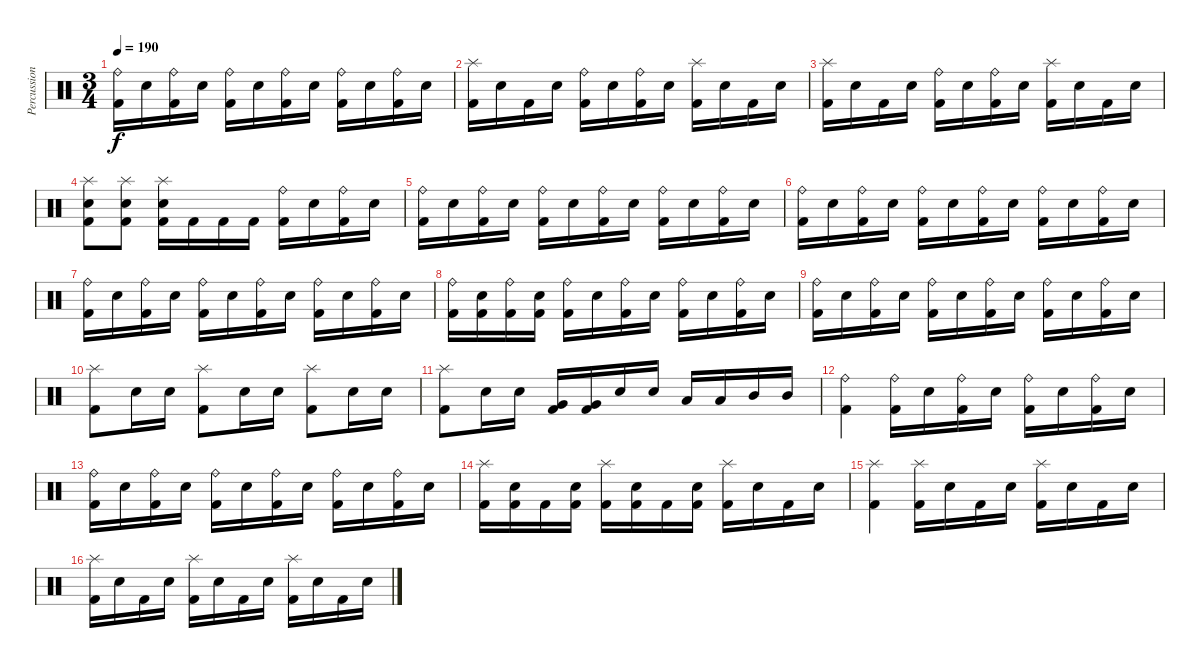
\track ("Percussion" "Percussion") {instrument percussion}
\staff {score}
\articulation defaults
\ts (3 4)
\tempo 190
\clef neutral
\ks c
("Ride (bell)" "Kick (hit) 2").16{dy f} "Electric Snare (hit)".16 ("Ride (bell)" "Kick (hit) 2").16 "Electric Snare (hit)".16 ("Ride (bell)" "Kick (hit) 2").16 "Electric Snare (hit)".16 ("Ride (bell)" "Kick (hit) 2").16 "Electric Snare (hit)".16 ("Ride (bell)" "Kick (hit) 2").16 "Electric Snare (hit)".16 ("Ride (bell)" "Kick (hit) 2").16 "Electric Snare (hit)".16 |
("Splash (hit)" "Kick (hit) 2").16 "Electric Snare (hit)".16 "Kick (hit) 2".16 "Electric Snare (hit)".16 ("Ride (bell)" "Kick (hit) 2").16 "Electric Snare (hit)".16 ("Ride (bell)" "Kick (hit) 2").16 "Electric Snare (hit)".16 ("Splash (hit)" "Kick (hit) 2").16 "Electric Snare (hit)".16 "Kick (hit) 2".16 "Electric Snare (hit)".16 |
("Splash (hit)" "Kick (hit) 2").16 "Electric Snare (hit)".16 "Kick (hit) 2".16 "Electric Snare (hit)".16 ("Ride (bell)" "Kick (hit) 2").16 "Electric Snare (hit)".16 ("Ride (bell)" "Kick (hit) 2").16 "Electric Snare (hit)".16 ("Splash (hit)" "Kick (hit) 2").16 "Electric Snare (hit)".16 "Kick (hit) 2".16 "Electric Snare (hit)".16 |
("Splash (hit)" "Electric Snare (hit)" "Kick (hit) 2").8 ("Splash (hit)" "Electric Snare (hit)" "Kick (hit) 2").8 ("Splash (hit)" "Electric Snare (hit)" "Kick (hit) 2").16 "Kick (hit) 2".16 "Kick (hit) 2".16 "Kick (hit) 2".16 ("Ride (bell)" "Kick (hit) 2").16 "Electric Snare (hit)".16 ("Ride (bell)" "Kick (hit) 2").16 "Electric Snare (hit)".16 |
("Ride (bell)" "Kick (hit) 2").16 "Electric Snare (hit)".16 ("Ride (bell)" "Kick (hit) 2").16 "Electric Snare (hit)".16 ("Ride (bell)" "Kick (hit) 2").16 "Electric Snare (hit)".16 ("Ride (bell)" "Kick (hit) 2").16 "Electric Snare (hit)".16 ("Ride (bell)" "Kick (hit) 2").16 "Electric Snare (hit)".16 ("Ride (bell)" "Kick (hit) 2").16 "Electric Snare (hit)".16 |
("Ride (bell)" "Kick (hit) 2").16 "Electric Snare (hit)".16 ("Ride (bell)" "Kick (hit) 2").16 "Electric Snare (hit)".16 ("Ride (bell)" "Kick (hit) 2").16 "Electric Snare (hit)".16 ("Ride (bell)" "Kick (hit) 2").16 "Electric Snare (hit)".16 ("Ride (bell)" "Kick (hit) 2").16 "Electric Snare (hit)".16 ("Ride (bell)" "Kick (hit) 2").16 "Electric Snare (hit)".16 |
("Ride (bell)" "Kick (hit) 2").16 "Electric Snare (hit)".16 ("Ride (bell)" "Kick (hit) 2").16 "Electric Snare (hit)".16 ("Ride (bell)" "Kick (hit) 2").16 "Electric Snare (hit)".16 ("Ride (bell)" "Kick (hit) 2").16 "Electric Snare (hit)".16 ("Ride (bell)" "Kick (hit) 2").16 "Electric Snare (hit)".16 ("Ride (bell)" "Kick (hit) 2").16 "Electric Snare (hit)".16 |
("Ride (bell)" "Kick (hit) 2").16 ("Electric Snare (hit)" "Kick (hit) 2").16 ("Ride (bell)" "Kick (hit) 2").16 ("Electric Snare (hit)" "Kick (hit) 2").16 ("Ride (bell)" "Kick (hit) 2").16 "Electric Snare (hit)".16 ("Ride (bell)" "Kick (hit) 2").16 "Electric Snare (hit)".16 ("Ride (bell)" "Kick (hit) 2").16 "Electric Snare (hit)".16 ("Ride (bell)" "Kick (hit) 2").16 "Electric Snare (hit)".16 |
("Ride (bell)" "Kick (hit) 2").16 "Electric Snare (hit)".16 ("Ride (bell)" "Kick (hit) 2").16 "Electric Snare (hit)".16 ("Ride (bell)" "Kick (hit) 2").16 "Electric Snare (hit)".16 ("Ride (bell)" "Kick (hit) 2").16 "Electric Snare (hit)".16 ("Ride (bell)" "Kick (hit) 2").16 "Electric Snare (hit)".16 ("Ride (bell)" "Kick (hit) 2").16 "Electric Snare (hit)".16 |
("Splash (hit)" "Kick (hit) 2").8 "Electric Snare (hit)".16 "Electric Snare (hit)".16 ("Splash (hit)" "Kick (hit) 2").8 "Electric Snare (hit)".16 "Electric Snare (hit)".16 ("Splash (hit)" "Kick (hit) 2").8 "Electric Snare (hit)".16 "Electric Snare (hit)".16 |
("Splash (hit)" "Kick (hit) 2").8 "Electric Snare (hit)".16 "Electric Snare (hit)".16 ("Very Low Tom (hit)" "Kick (hit) 2").16 ("Very Low Tom (hit)" "Kick (hit) 2").16 "Electric Snare (hit)".16 "Electric Snare (hit)".16 "Low Tom (hit)".16 "Low Tom (hit)".16 "Mid Tom (hit)".16 "Mid Tom (hit)".16 |
("Ride (bell)" "Kick (hit) 2").4 ("Ride (bell)" "Kick (hit) 2").16 "Electric Snare (hit)".16 ("Ride (bell)" "Kick (hit) 2").16 "Electric Snare (hit)".16 ("Ride (bell)" "Kick (hit) 2").16 "Electric Snare (hit)".16 ("Ride (bell)" "Kick (hit) 2").16 "Electric Snare (hit)".16 |
("Ride (bell)" "Kick (hit) 2").16 "Electric Snare (hit)".16 ("Ride (bell)" "Kick (hit) 2").16 "Electric Snare (hit)".16 ("Ride (bell)" "Kick (hit) 2").16 "Electric Snare (hit)".16 ("Ride (bell)" "Kick (hit) 2").16 "Electric Snare (hit)".16 ("Ride (bell)" "Kick (hit) 2").16 "Electric Snare (hit)".16 ("Ride (bell)" "Kick (hit) 2").16 "Electric Snare (hit)".16 |
("Splash (hit)" "Kick (hit) 2").16 ("Electric Snare (hit)" "Kick (hit) 2").16 "Kick (hit) 2".16 ("Electric Snare (hit)" "Kick (hit) 2").16 ("Splash (hit)" "Kick (hit) 2").16 ("Electric Snare (hit)" "Kick (hit) 2").16 "Kick (hit) 2".16 ("Electric Snare (hit)" "Kick (hit) 2").16 ("Splash (hit)" "Kick (hit) 2").16 "Electric Snare (hit)".16 "Kick (hit) 2".16 "Electric Snare (hit)".16 |
("Splash (hit)" "Kick (hit) 2").4 ("Splash (hit)" "Kick (hit) 2").16 "Electric Snare (hit)".16 "Kick (hit) 2".16 "Electric Snare (hit)".16 ("Splash (hit)" "Kick (hit) 2").16 "Electric Snare (hit)".16 "Kick (hit) 2".16 "Electric Snare (hit)".16 |
("Splash (hit)" "Kick (hit) 2").16 "Electric Snare (hit)".16 "Kick (hit) 2".16 "Electric Snare (hit)".16 ("Splash (hit)" "Kick (hit) 2").16 "Electric Snare (hit)".16 "Kick (hit) 2".16 "Electric Snare (hit)".16 ("Splash (hit)" "Kick (hit) 2").16 "Electric Snare (hit)".16 "Kick (hit) 2".16 "Electric Snare (hit)".16
